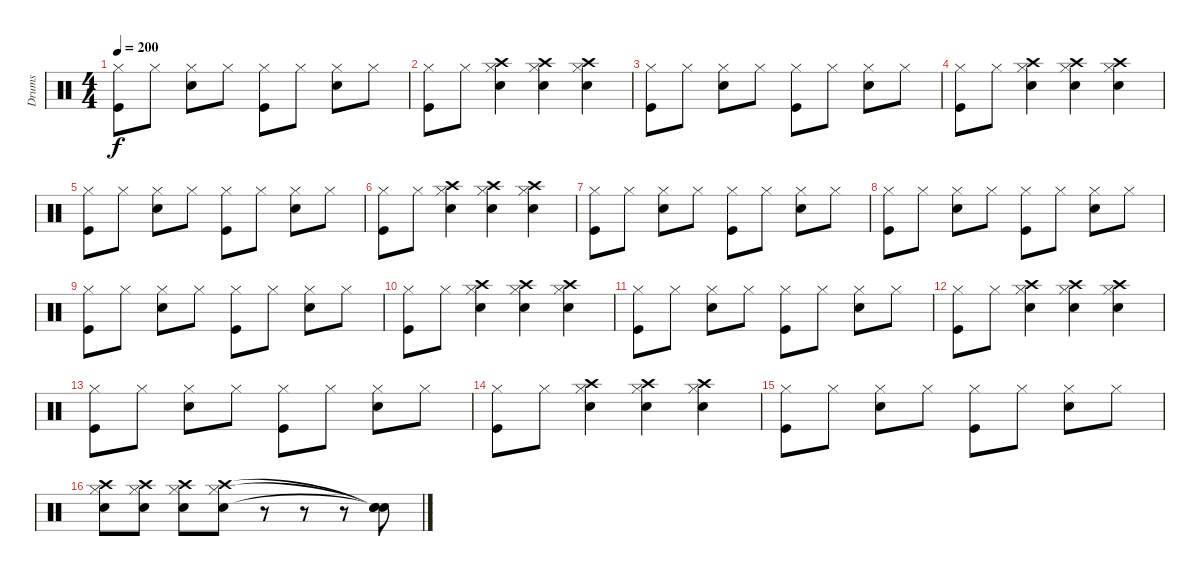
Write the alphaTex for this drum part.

\track ("Drums" "Drums") {instrument percussion}
\staff {score}
\articulation defaults
\ts (4 4)
\tempo 200
\clef neutral
\ks c
("Hi-Hat (closed)" "Kick (hit)").8{dy f} "Hi-Hat (closed)".8 ("Hi-Hat (closed)" "Electric Snare (hit)").8 "Hi-Hat (closed)".8 ("Hi-Hat (closed)" "Kick (hit)").8 "Hi-Hat (closed)".8 ("Hi-Hat (closed)" "Electric Snare (hit)").8 "Hi-Hat (closed)".8 |
("Hi-Hat (closed)" "Kick (hit)").8 "Hi-Hat (closed)".8 ("Hi-Hat (closed)" "Electric Snare (hit)" "Crash high (hit)").4 ("Hi-Hat (closed)" "Electric Snare (hit)" "Crash high (hit)").4 ("Hi-Hat (closed)" "Electric Snare (hit)" "Crash high (hit)").4 |
("Hi-Hat (closed)" "Kick (hit)").8 "Hi-Hat (closed)".8 ("Hi-Hat (closed)" "Electric Snare (hit)").8 "Hi-Hat (closed)".8 ("Hi-Hat (closed)" "Kick (hit)").8 "Hi-Hat (closed)".8 ("Hi-Hat (closed)" "Electric Snare (hit)").8 "Hi-Hat (closed)".8 |
("Hi-Hat (closed)" "Kick (hit)").8 "Hi-Hat (closed)".8 ("Hi-Hat (closed)" "Electric Snare (hit)" "Crash high (hit)").4 ("Hi-Hat (closed)" "Electric Snare (hit)" "Crash high (hit)").4 ("Hi-Hat (closed)" "Electric Snare (hit)" "Crash high (hit)").4 |
("Hi-Hat (closed)" "Kick (hit)").8 "Hi-Hat (closed)".8 ("Hi-Hat (closed)" "Electric Snare (hit)").8 "Hi-Hat (closed)".8 ("Hi-Hat (closed)" "Kick (hit)").8 "Hi-Hat (closed)".8 ("Hi-Hat (closed)" "Electric Snare (hit)").8 "Hi-Hat (closed)".8 |
("Hi-Hat (closed)" "Kick (hit)").8 "Hi-Hat (closed)".8 ("Hi-Hat (closed)" "Electric Snare (hit)" "Crash high (hit)").4 ("Hi-Hat (closed)" "Electric Snare (hit)" "Crash high (hit)").4 ("Hi-Hat (closed)" "Electric Snare (hit)" "Crash high (hit)").4 |
("Hi-Hat (closed)" "Kick (hit)").8 "Hi-Hat (closed)".8 ("Hi-Hat (closed)" "Electric Snare (hit)").8 "Hi-Hat (closed)".8 ("Hi-Hat (closed)" "Kick (hit)").8 "Hi-Hat (closed)".8 ("Hi-Hat (closed)" "Electric Snare (hit)").8 "Hi-Hat (closed)".8 |
("Hi-Hat (closed)" "Kick (hit)").8 "Hi-Hat (closed)".8 ("Hi-Hat (closed)" "Electric Snare (hit)").8 "Hi-Hat (closed)".8 ("Hi-Hat (closed)" "Kick (hit)").8 "Hi-Hat (closed)".8 ("Hi-Hat (closed)" "Electric Snare (hit)").8 "Hi-Hat (closed)".8 |
("Hi-Hat (closed)" "Kick (hit)").8 "Hi-Hat (closed)".8 ("Hi-Hat (closed)" "Electric Snare (hit)").8 "Hi-Hat (closed)".8 ("Hi-Hat (closed)" "Kick (hit)").8 "Hi-Hat (closed)".8 ("Hi-Hat (closed)" "Electric Snare (hit)").8 "Hi-Hat (closed)".8 |
("Hi-Hat (closed)" "Kick (hit)").8 "Hi-Hat (closed)".8 ("Hi-Hat (closed)" "Electric Snare (hit)" "Crash high (hit)").4 ("Hi-Hat (closed)" "Electric Snare (hit)" "Crash high (hit)").4 ("Hi-Hat (closed)" "Electric Snare (hit)" "Crash high (hit)").4 |
("Hi-Hat (closed)" "Kick (hit)").8 "Hi-Hat (closed)".8 ("Hi-Hat (closed)" "Electric Snare (hit)").8 "Hi-Hat (closed)".8 ("Hi-Hat (closed)" "Kick (hit)").8 "Hi-Hat (closed)".8 ("Hi-Hat (closed)" "Electric Snare (hit)").8 "Hi-Hat (closed)".8 |
("Hi-Hat (closed)" "Kick (hit)").8 "Hi-Hat (closed)".8 ("Hi-Hat (closed)" "Electric Snare (hit)" "Crash high (hit)").4 ("Hi-Hat (closed)" "Electric Snare (hit)" "Crash high (hit)").4 ("Hi-Hat (closed)" "Electric Snare (hit)" "Crash high (hit)").4 |
("Hi-Hat (closed)" "Kick (hit)").8 "Hi-Hat (closed)".8 ("Hi-Hat (closed)" "Electric Snare (hit)").8 "Hi-Hat (closed)".8 ("Hi-Hat (closed)" "Kick (hit)").8 "Hi-Hat (closed)".8 ("Hi-Hat (closed)" "Electric Snare (hit)").8 "Hi-Hat (closed)".8 |
("Hi-Hat (closed)" "Kick (hit)").8 "Hi-Hat (closed)".8 ("Hi-Hat (closed)" "Electric Snare (hit)" "Crash high (hit)").4 ("Hi-Hat (closed)" "Electric Snare (hit)" "Crash high (hit)").4 ("Hi-Hat (closed)" "Electric Snare (hit)" "Crash high (hit)").4 |
("Hi-Hat (closed)" "Kick (hit)").8 "Hi-Hat (closed)".8 ("Hi-Hat (closed)" "Electric Snare (hit)").8 "Hi-Hat (closed)".8 ("Hi-Hat (closed)" "Kick (hit)").8 "Hi-Hat (closed)".8 ("Hi-Hat (closed)" "Electric Snare (hit)").8 "Hi-Hat (closed)".8 |
("Crash high (hit)" "Hi-Hat (closed)" "Electric Snare (hit)").8 ("Crash high (hit)" "Hi-Hat (closed)" "Electric Snare (hit)").8 ("Crash high (hit)" "Hi-Hat (closed)" "Electric Snare (hit)").8 ("Crash high (hit)" "Hi-Hat (closed)" "Electric Snare (hit)").8 r.8 r.8 r.8 ("Snare (hit)"{t} "Snare (hit)"{t} "Snare (hit)"{t}).8
